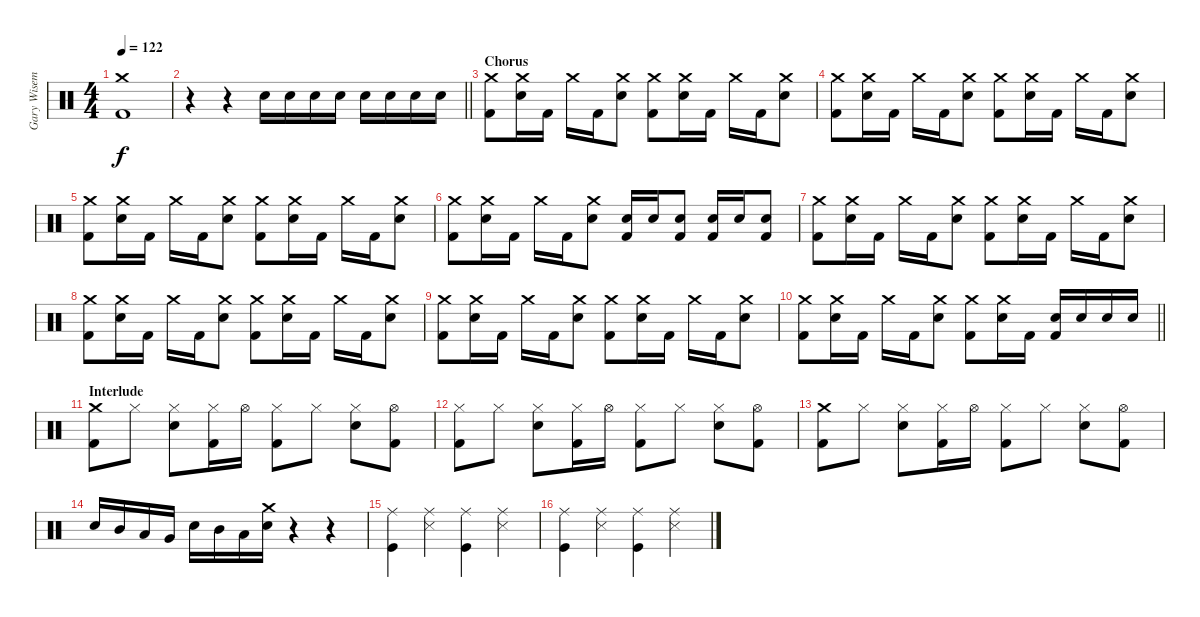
\track ("Gary Wiseman - Drums" "Gary Wisem") {instrument percussion}
\staff {score}
\articulation defaults
\ts (4 4)
\tempo 122
\clef neutral
\ks c
("Crash medium (hit)" "Kick (hit) 2").1{dy f} |
\barLineRight lightlight
r.4 r.4 "Electric Snare (hit)".16 "Electric Snare (hit)".16 "Electric Snare (hit)".16 "Electric Snare (hit)".16 "Electric Snare (hit)".16 "Electric Snare (hit)".16 "Electric Snare (hit)".16 "Electric Snare (hit)".16 |
\section ("" "Chorus")
("Crash medium (hit)" "Kick (hit) 2").8 ("Crash medium (hit)" "Electric Snare (hit)").16 "Kick (hit) 2".16 "Crash medium (hit)".16 "Kick (hit) 2".16 ("Crash medium (hit)" "Electric Snare (hit)").8 ("Crash medium (hit)" "Kick (hit) 2").8 ("Crash medium (hit)" "Electric Snare (hit)").16 "Kick (hit) 2".16 "Crash medium (hit)".16 "Kick (hit) 2".16 ("Crash medium (hit)" "Electric Snare (hit)").8 |
("Crash medium (hit)" "Kick (hit) 2").8 ("Crash medium (hit)" "Electric Snare (hit)").16 "Kick (hit) 2".16 "Crash medium (hit)".16 "Kick (hit) 2".16 ("Crash medium (hit)" "Electric Snare (hit)").8 ("Crash medium (hit)" "Kick (hit) 2").8 ("Crash medium (hit)" "Electric Snare (hit)").16 "Kick (hit) 2".16 "Crash medium (hit)".16 "Kick (hit) 2".16 ("Crash medium (hit)" "Electric Snare (hit)").8 |
("Crash medium (hit)" "Kick (hit) 2").8 ("Crash medium (hit)" "Electric Snare (hit)").16 "Kick (hit) 2".16 "Crash medium (hit)".16 "Kick (hit) 2".16 ("Crash medium (hit)" "Electric Snare (hit)").8 ("Crash medium (hit)" "Kick (hit) 2").8 ("Crash medium (hit)" "Electric Snare (hit)").16 "Kick (hit) 2".16 "Crash medium (hit)".16 "Kick (hit) 2".16 ("Crash medium (hit)" "Electric Snare (hit)").8 |
("Crash medium (hit)" "Kick (hit) 2").8 ("Crash medium (hit)" "Electric Snare (hit)").16 "Kick (hit) 2".16 "Crash medium (hit)".16 "Kick (hit) 2".16 ("Crash medium (hit)" "Electric Snare (hit)").8 ("Electric Snare (hit)" "Kick (hit) 2").16 "Electric Snare (hit)".16 ("Electric Snare (hit)" "Kick (hit) 2").8 ("Electric Snare (hit)" "Kick (hit) 2").16 "Electric Snare (hit)".16 ("Electric Snare (hit)" "Kick (hit) 2").8 |
("Crash medium (hit)" "Kick (hit) 2").8 ("Crash medium (hit)" "Electric Snare (hit)").16 "Kick (hit) 2".16 "Crash medium (hit)".16 "Kick (hit) 2".16 ("Crash medium (hit)" "Electric Snare (hit)").8 ("Crash medium (hit)" "Kick (hit) 2").8 ("Crash medium (hit)" "Electric Snare (hit)").16 "Kick (hit) 2".16 "Crash medium (hit)".16 "Kick (hit) 2".16 ("Crash medium (hit)" "Electric Snare (hit)").8 |
("Crash medium (hit)" "Kick (hit) 2").8 ("Crash medium (hit)" "Electric Snare (hit)").16 "Kick (hit) 2".16 "Crash medium (hit)".16 "Kick (hit) 2".16 ("Crash medium (hit)" "Electric Snare (hit)").8 ("Crash medium (hit)" "Kick (hit) 2").8 ("Crash medium (hit)" "Electric Snare (hit)").16 "Kick (hit) 2".16 "Crash medium (hit)".16 "Kick (hit) 2".16 ("Crash medium (hit)" "Electric Snare (hit)").8 |
("Crash medium (hit)" "Kick (hit) 2").8 ("Crash medium (hit)" "Electric Snare (hit)").16 "Kick (hit) 2".16 "Crash medium (hit)".16 "Kick (hit) 2".16 ("Crash medium (hit)" "Electric Snare (hit)").8 ("Crash medium (hit)" "Kick (hit) 2").8 ("Crash medium (hit)" "Electric Snare (hit)").16 "Kick (hit) 2".16 "Crash medium (hit)".16 "Kick (hit) 2".16 ("Crash medium (hit)" "Electric Snare (hit)").8 |
\barLineRight lightlight
("Crash medium (hit)" "Kick (hit) 2").8 ("Crash medium (hit)" "Electric Snare (hit)").16 "Kick (hit) 2".16 "Crash medium (hit)".16 "Kick (hit) 2".16 ("Crash medium (hit)" "Electric Snare (hit)").8 ("Crash medium (hit)" "Kick (hit) 2").8 ("Crash medium (hit)" "Electric Snare (hit)").16 "Kick (hit) 2".16 ("Electric Snare (hit)" "Kick (hit) 2").16 "Electric Snare (hit)".16 "Electric Snare (hit)".16 "Electric Snare (hit)".16 |
\section ("" "Interlude")
("Crash medium (hit)" "Kick (hit) 2").8 "Hi-Hat (closed)".8 ("Hi-Hat (closed)" "Electric Snare (hit)").8 ("Hi-Hat (closed)" "Kick (hit) 2").16 "Hi-Hat (open)".16 ("Hi-Hat (closed)" "Kick (hit) 2").8 "Hi-Hat (closed)".8 ("Hi-Hat (closed)" "Electric Snare (hit)").8 ("Hi-Hat (open)" "Kick (hit) 2").8 |
("Hi-Hat (closed)" "Kick (hit) 2").8 "Hi-Hat (closed)".8 ("Hi-Hat (closed)" "Electric Snare (hit)").8 ("Hi-Hat (closed)" "Kick (hit) 2").16 "Hi-Hat (open)".16 ("Hi-Hat (closed)" "Kick (hit) 2").8 "Hi-Hat (closed)".8 ("Hi-Hat (closed)" "Electric Snare (hit)").8 ("Hi-Hat (open)" "Kick (hit) 2").8 |
("Crash medium (hit)" "Kick (hit) 2").8 "Hi-Hat (closed)".8 ("Hi-Hat (closed)" "Electric Snare (hit)").8 ("Hi-Hat (closed)" "Kick (hit) 2").16 "Hi-Hat (open)".16 ("Hi-Hat (closed)" "Kick (hit) 2").8 "Hi-Hat (closed)".8 ("Hi-Hat (closed)" "Electric Snare (hit)").8 ("Hi-Hat (open)" "Kick (hit) 2").8 |
"Electric Snare (hit)".16 "Mid Tom (hit)".16 "Low Tom (hit)".16 "Very Low Tom (hit)".16 "Electric Snare (hit)".16 "Mid Tom (hit)".16 "Low Tom (hit)".16 ("Crash medium (hit)" "Electric Snare (hit)").16 r.4 r.4 |
("Ride (middle)" "Kick (hit)").4 ("Ride (middle)" "Snare (side stick) 3").4 ("Ride (middle)" "Kick (hit)").4 ("Ride (middle)" "Snare (side stick) 3").4 |
("Ride (middle)" "Kick (hit)").4 ("Ride (middle)" "Snare (side stick) 3").4 ("Ride (middle)" "Kick (hit)").4 ("Ride (middle)" "Snare (side stick) 3").4
